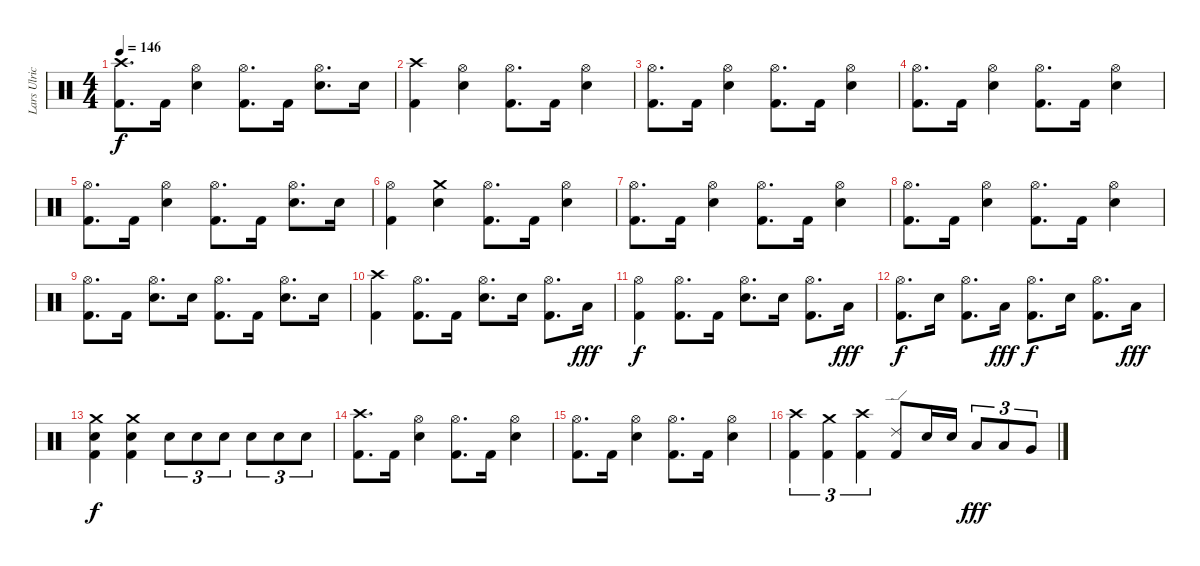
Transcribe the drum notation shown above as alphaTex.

\track ("Lars Ulrich" "Lars Ulric") {instrument percussion}
\staff {score}
\articulation defaults
\ts (4 4)
\tempo 146
\clef neutral
\ks c
("Crash high (hit)" "Kick (hit) 2").8{d dy f} "Kick (hit) 2".16 ("Hi-Hat (open)" "Electric Snare (hit)").4 ("Hi-Hat (open)" "Kick (hit) 2").8{d} "Kick (hit) 2".16 ("Hi-Hat (open)" "Electric Snare (hit)").8{d} "Electric Snare (hit)".16 |
("Crash high (hit)" "Kick (hit) 2").4 ("Hi-Hat (open)" "Electric Snare (hit)").4 ("Hi-Hat (open)" "Kick (hit) 2").8{d} "Kick (hit) 2".16 ("Hi-Hat (open)" "Electric Snare (hit)").4 |
("Hi-Hat (open)" "Kick (hit) 2").8{d} "Kick (hit) 2".16 ("Hi-Hat (open)" "Electric Snare (hit)").4 ("Hi-Hat (open)" "Kick (hit) 2").8{d} "Kick (hit) 2".16 ("Hi-Hat (open)" "Electric Snare (hit)").4 |
("Hi-Hat (open)" "Kick (hit) 2").8{d} "Kick (hit) 2".16 ("Hi-Hat (open)" "Electric Snare (hit)").4 ("Hi-Hat (open)" "Kick (hit) 2").8{d} "Kick (hit) 2".16 ("Hi-Hat (open)" "Electric Snare (hit)").4 |
("Hi-Hat (open)" "Kick (hit) 2").8{d} "Kick (hit) 2".16 ("Hi-Hat (open)" "Electric Snare (hit)").4 ("Hi-Hat (open)" "Kick (hit) 2").8{d} "Kick (hit) 2".16 ("Hi-Hat (open)" "Electric Snare (hit)").8{d} "Electric Snare (hit)".16 |
("Hi-Hat (open)" "Kick (hit) 2").4 ("Crash medium (hit)" "Electric Snare (hit)").4 ("Hi-Hat (open)" "Kick (hit) 2").8{d} "Kick (hit) 2".16 ("Hi-Hat (open)" "Electric Snare (hit)").4 |
("Hi-Hat (open)" "Kick (hit) 2").8{d} "Kick (hit) 2".16 ("Hi-Hat (open)" "Electric Snare (hit)").4 ("Hi-Hat (open)" "Kick (hit) 2").8{d} "Kick (hit) 2".16 ("Hi-Hat (open)" "Electric Snare (hit)").4 |
("Hi-Hat (open)" "Kick (hit) 2").8{d} "Kick (hit) 2".16 ("Hi-Hat (open)" "Electric Snare (hit)").4 ("Hi-Hat (open)" "Kick (hit) 2").8{d} "Kick (hit) 2".16 ("Hi-Hat (open)" "Electric Snare (hit)").4 |
("Hi-Hat (open)" "Kick (hit) 2").8{d} "Kick (hit) 2".16 ("Hi-Hat (open)" "Electric Snare (hit)").8{d} "Electric Snare (hit)".16 ("Hi-Hat (open)" "Kick (hit) 2").8{d} "Kick (hit) 2".16 ("Hi-Hat (open)" "Electric Snare (hit)").8{d} "Electric Snare (hit)".16 |
("Crash high (hit)" "Kick (hit) 2").4 ("Hi-Hat (open)" "Kick (hit) 2").8{d} "Kick (hit) 2".16 ("Hi-Hat (open)" "Electric Snare (hit)").8{d} "Electric Snare (hit)".16 ("Hi-Hat (open)" "Kick (hit) 2").8{d} "Low Tom (hit)".16{dy fff} |
("Hi-Hat (open)" "Kick (hit) 2").4{dy f} ("Hi-Hat (open)" "Kick (hit) 2").8{d} "Kick (hit) 2".16 ("Hi-Hat (open)" "Electric Snare (hit)").8{d} "Electric Snare (hit)".16 ("Hi-Hat (open)" "Kick (hit) 2").8{d} "Low Tom (hit)".16{dy fff} |
("Hi-Hat (open)" "Kick (hit) 2").8{d dy f} "Electric Snare (hit)".16 ("Hi-Hat (open)" "Kick (hit) 2").8{d} "Low Tom (hit)".16{dy fff} ("Hi-Hat (open)" "Kick (hit) 2").8{d dy f} "Electric Snare (hit)".16 ("Hi-Hat (open)" "Kick (hit) 2").8{d} "Low Tom (hit)".16{dy fff} |
("Crash medium (hit)" "Electric Snare (hit)" "Kick (hit) 2").4{dy f} ("Crash medium (hit)" "Electric Snare (hit)" "Kick (hit) 2").4 "Electric Snare (hit)".8{tu (3 2)} "Electric Snare (hit)".8{tu (3 2)} "Electric Snare (hit)".8{tu (3 2)} "Electric Snare (hit)".8{tu (3 2)} "Electric Snare (hit)".8{tu (3 2)} "Electric Snare (hit)".8{tu (3 2)} |
("Crash high (hit)" "Kick (hit) 2").8{d} "Kick (hit) 2".16 ("Hi-Hat (open)" "Electric Snare (hit)").4 ("Hi-Hat (open)" "Kick (hit) 2").8{d} "Kick (hit) 2".16 ("Hi-Hat (open)" "Electric Snare (hit)").4 |
("Hi-Hat (open)" "Kick (hit) 2").8{d} "Kick (hit) 2".16 ("Hi-Hat (open)" "Electric Snare (hit)").4 ("Hi-Hat (open)" "Kick (hit) 2").8{d} "Kick (hit) 2".16 ("Hi-Hat (open)" "Electric Snare (hit)").4 |
("Crash high (hit)" "Kick (hit) 2").4{tu (3 2)} ("Crash medium (hit)" "Kick (hit) 2").4{tu (3 2)} ("Crash high (hit)" "Kick (hit) 2").4{tu (3 2)} ("Ride (edge) 2" "Kick (hit) 2").8 "Electric Snare (hit)".16 "Electric Snare (hit)".16 "Low Tom (hit)".8{tu (3 2) dy fff} "Low Tom (hit)".8{tu (3 2)} "Very Low Tom (hit)".8{tu (3 2)}
